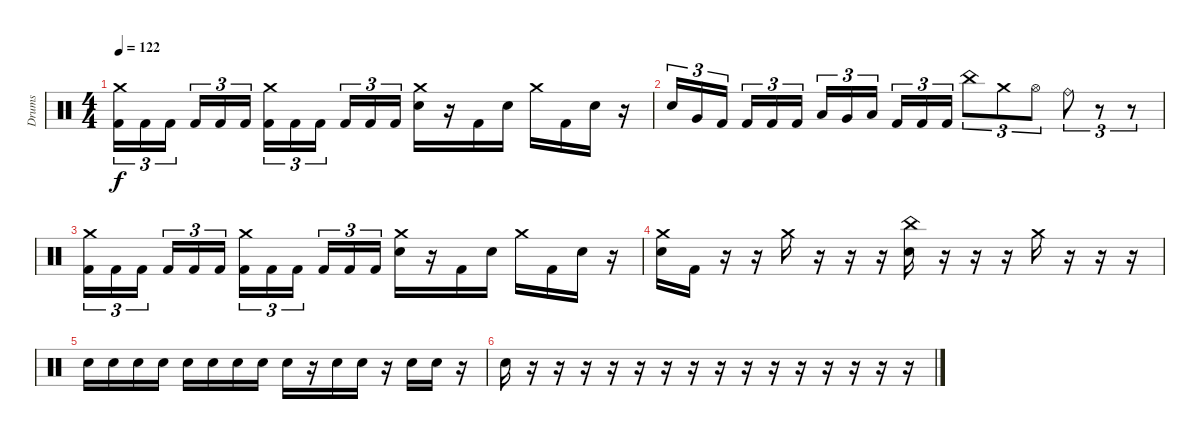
\track ("Drums" "Drums") {instrument percussion}
\staff {score}
\articulation defaults
\ts (4 4)
\tempo 122
\clef neutral
\ks c
("Crash medium (hit)" "Kick (hit) 2").16{tu (3 2) dy f} "Kick (hit) 2".16{tu (3 2)} "Kick (hit) 2".16{tu (3 2)} "Kick (hit) 2".16{tu (3 2)} "Kick (hit) 2".16{tu (3 2)} "Kick (hit) 2".16{tu (3 2)} ("Crash medium (hit)" "Kick (hit) 2").16{tu (3 2)} "Kick (hit) 2".16{tu (3 2)} "Kick (hit) 2".16{tu (3 2)} "Kick (hit) 2".16{tu (3 2)} "Kick (hit) 2".16{tu (3 2)} "Kick (hit) 2".16{tu (3 2)} ("Crash medium (hit)" "Electric Snare (hit)").16 r.16 "Kick (hit) 2".16 "Electric Snare (hit)".16 "Crash medium (hit)".16 "Kick (hit) 2".16 "Electric Snare (hit)".16 r.16 |
"Electric Snare (hit)".16{tu (3 2)} "Very Low Tom (hit)".16{tu (3 2)} "Kick (hit) 2".16{tu (3 2)} "Kick (hit) 2".16{tu (3 2)} "Kick (hit) 2".16{tu (3 2)} "Kick (hit) 2".16{tu (3 2)} "Low Tom (hit)".16{tu (3 2)} "Very Low Tom (hit)".16{tu (3 2)} "Low Floor Tom (hit)".16{tu (3 2)} "Kick (hit) 2".16{tu (3 2)} "Kick (hit) 2".16{tu (3 2)} "Kick (hit) 2".16{tu (3 2)} "China (hit)".8{tu (3 2)} "Crash medium (hit)".8{tu (3 2)} "Hi-Hat (open)".8{tu (3 2)} "Ride (bell)".8{tu (3 2)} r.8{tu (3 2)} r.8{tu (3 2)} |
("Crash medium (hit)" "Kick (hit) 2").16{tu (3 2)} "Kick (hit) 2".16{tu (3 2)} "Kick (hit) 2".16{tu (3 2)} "Kick (hit) 2".16{tu (3 2)} "Kick (hit) 2".16{tu (3 2)} "Kick (hit) 2".16{tu (3 2)} ("Crash medium (hit)" "Kick (hit) 2").16{tu (3 2)} "Kick (hit) 2".16{tu (3 2)} "Kick (hit) 2".16{tu (3 2)} "Kick (hit) 2".16{tu (3 2)} "Kick (hit) 2".16{tu (3 2)} "Kick (hit) 2".16{tu (3 2)} ("Crash medium (hit)" "Electric Snare (hit)").16 r.16 "Kick (hit) 2".16 "Electric Snare (hit)".16 "Crash medium (hit)".16 "Kick (hit) 2".16 "Electric Snare (hit)".16 r.16 |
("Crash medium (hit)" "Electric Snare (hit)").16 "Kick (hit) 2".16 r.16 r.16 "Crash medium (hit)".16 r.16 r.16 r.16 ("China (hit)" "Electric Snare (hit)").16 r.16 r.16 r.16 "Crash medium (hit)".16 r.16 r.16 r.16 |
"Electric Snare (hit)".16 "Electric Snare (hit)".16 "Electric Snare (hit)".16 "Electric Snare (hit)".16 "Electric Snare (hit)".16 "Electric Snare (hit)".16 "Electric Snare (hit)".16 "Electric Snare (hit)".16 "Electric Snare (hit)".16 r.16 "Electric Snare (hit)".16 "Electric Snare (hit)".16 r.16 "Electric Snare (hit)".16 "Electric Snare (hit)".16 r.16 |
"Electric Snare (hit)".16 r.16 r.16 r.16 r.16 r.16 r.16 r.16 r.16 r.16 r.16 r.16 r.16 r.16 r.16 r.16
